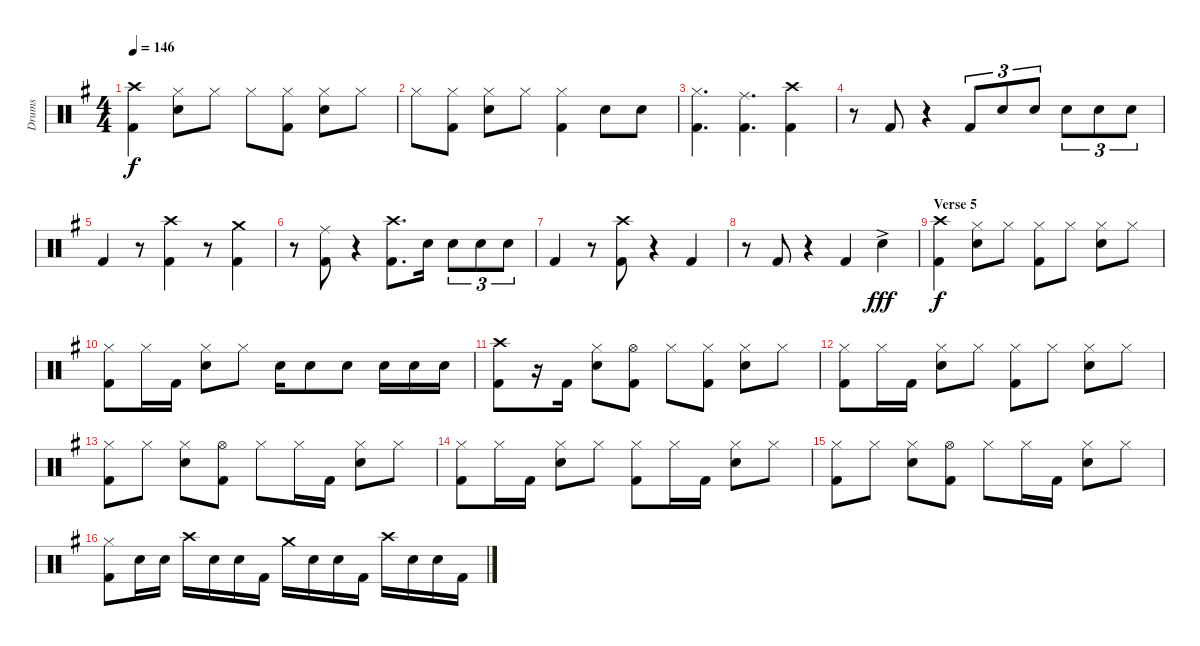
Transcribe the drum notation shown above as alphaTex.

\track ("Drums" "Drums") {instrument percussion}
\staff {score}
\articulation defaults
\ts (4 4)
\tempo 146
\clef neutral
\ks g
("Kick (hit) 2" "Crash high (hit)").4{dy f} ("Snare (hit) 2" "Hi-Hat (closed)").8 "Hi-Hat (closed)".8 "Hi-Hat (closed)".8 ("Kick (hit) 2" "Hi-Hat (closed)").8 ("Snare (hit) 2" "Hi-Hat (closed)").8 "Hi-Hat (closed)".8 |
"Hi-Hat (closed)".8 ("Kick (hit) 2" "Hi-Hat (closed)").8 ("Snare (hit) 2" "Hi-Hat (closed)").8 "Hi-Hat (closed)".8 ("Kick (hit) 2" "Hi-Hat (closed)").4 "Snare (hit) 2".8 "Snare (hit) 2".8 |
("Kick (hit) 2" "Hi-Hat (closed)").4{d} ("Kick (hit) 2" "Ride (middle)").4{d} ("Kick (hit) 2" "Crash high (hit)").4 |
r.8 "Kick (hit) 2".8 r.4 "Kick (hit) 2".8{tu (3 2)} "Snare (hit) 2".8{tu (3 2)} "Snare (hit) 2".8{tu (3 2)} "Snare (hit) 2".8{tu (3 2)} "Snare (hit) 2".8{tu (3 2)} "Snare (hit) 2".8{tu (3 2)} |
"Kick (hit) 2".4 r.8 ("Kick (hit) 2" "Crash high (hit)").4 r.8 ("Kick (hit) 2" "Crash medium (hit)").4 |
r.8 ("Kick (hit) 2" "Ride (middle)").8 r.4 ("Kick (hit) 2" "Crash high (hit)").8{d} "Snare (hit) 2".16 "Snare (hit) 2".8{tu (3 2)} "Snare (hit) 2".8{tu (3 2)} "Snare (hit) 2".8{tu (3 2)} |
"Kick (hit) 2".4 r.8 ("Kick (hit) 2" "Crash high (hit)").8 r.4 "Kick (hit) 2".4 |
r.8 "Kick (hit) 2".8 r.4 "Kick (hit) 2".4 "Snare (hit) 2"{ac}.4{dy fff} |
\section ("" "Verse 5")
("Kick (hit) 2" "Crash high (hit)").4{dy f} ("Snare (hit) 2" "Hi-Hat (closed)").8 "Hi-Hat (closed)".8 ("Kick (hit) 2" "Hi-Hat (closed)").8 "Hi-Hat (closed)".8 ("Snare (hit) 2" "Hi-Hat (closed)").8 "Hi-Hat (closed)".8 |
("Kick (hit) 2" "Hi-Hat (closed)").8 "Hi-Hat (closed)".16 "Kick (hit) 2".16 ("Snare (hit) 2" "Hi-Hat (closed)").8 "Hi-Hat (closed)".8 "Snare (hit) 2".16 "Snare (hit) 2".8 "Snare (hit) 2".8 "Snare (hit) 2".16 "Snare (hit) 2".16 "Snare (hit) 2".16 |
("Kick (hit) 2" "Crash high (hit)").8 r.16 "Kick (hit) 2".16 ("Snare (hit) 2" "Hi-Hat (closed)").8 ("Kick (hit) 2" "Hi-Hat (open)").8 "Hi-Hat (closed)".8 ("Kick (hit) 2" "Hi-Hat (closed)").8 ("Snare (hit) 2" "Hi-Hat (closed)").8 "Hi-Hat (closed)".8 |
("Kick (hit) 2" "Hi-Hat (closed)").8 "Hi-Hat (closed)".16 "Kick (hit) 2".16 ("Snare (hit) 2" "Hi-Hat (closed)").8 "Hi-Hat (closed)".8 ("Kick (hit) 2" "Hi-Hat (closed)").8 "Hi-Hat (closed)".8 ("Snare (hit) 2" "Hi-Hat (closed)").8 "Hi-Hat (closed)".8 |
("Kick (hit) 2" "Hi-Hat (closed)").8 "Hi-Hat (closed)".8 ("Snare (hit) 2" "Hi-Hat (closed)").8 ("Kick (hit) 2" "Hi-Hat (open)").8 "Hi-Hat (closed)".8 "Hi-Hat (closed)".16 "Kick (hit) 2".16 ("Snare (hit) 2" "Hi-Hat (closed)").8 "Hi-Hat (closed)".8 |
("Kick (hit) 2" "Hi-Hat (closed)").8 "Hi-Hat (closed)".16 "Kick (hit) 2".16 ("Snare (hit) 2" "Hi-Hat (closed)").8 "Hi-Hat (closed)".8 ("Kick (hit) 2" "Hi-Hat (closed)").8 "Hi-Hat (closed)".16 "Kick (hit) 2".16 ("Snare (hit) 2" "Hi-Hat (closed)").8 "Hi-Hat (closed)".8 |
("Kick (hit) 2" "Hi-Hat (closed)").8 "Hi-Hat (closed)".8 ("Snare (hit) 2" "Hi-Hat (closed)").8 ("Kick (hit) 2" "Hi-Hat (open)").8 "Hi-Hat (closed)".8 "Hi-Hat (closed)".16 "Kick (hit) 2".16 ("Snare (hit) 2" "Hi-Hat (closed)").8 "Hi-Hat (closed)".8 |
("Kick (hit) 2" "Hi-Hat (closed)").8 "Snare (hit) 2".16 "Snare (hit) 2".16 "Crash high (hit)".16 "Snare (hit) 2".16 "Snare (hit) 2".16 "Kick (hit) 2".16 "Crash medium (hit)".16 "Snare (hit) 2".16 "Snare (hit) 2".16 "Kick (hit) 2".16 "Crash high (hit)".16 "Snare (hit) 2".16 "Snare (hit) 2".16 "Kick (hit) 2".16
